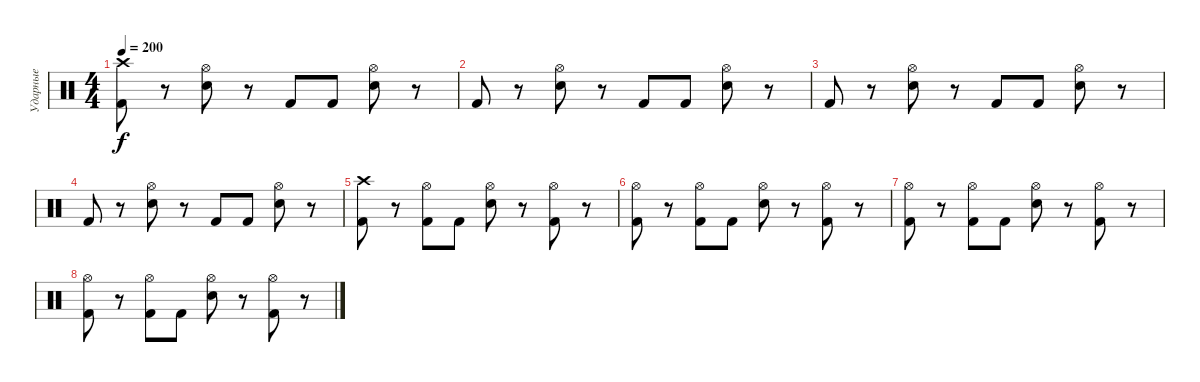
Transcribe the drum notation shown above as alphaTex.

\track ("Ударные" "Ударные") {instrument percussion}
\staff {score}
\articulation defaults
\ts (4 4)
\tempo 200
\clef neutral
\ks c
("Crash high (hit)" "Kick (hit) 2").8{dy f} r.8 ("Hi-Hat (open)" "Electric Snare (hit)").8 r.8 "Kick (hit) 2".8 "Kick (hit) 2".8 ("Hi-Hat (open)" "Electric Snare (hit)").8 r.8 |
"Kick (hit) 2".8 r.8 ("Hi-Hat (open)" "Electric Snare (hit)").8 r.8 "Kick (hit) 2".8 "Kick (hit) 2".8 ("Hi-Hat (open)" "Electric Snare (hit)").8 r.8 |
"Kick (hit) 2".8 r.8 ("Hi-Hat (open)" "Electric Snare (hit)").8 r.8 "Kick (hit) 2".8 "Kick (hit) 2".8 ("Hi-Hat (open)" "Electric Snare (hit)").8 r.8 |
"Kick (hit) 2".8 r.8 ("Hi-Hat (open)" "Electric Snare (hit)").8 r.8 "Kick (hit) 2".8 "Kick (hit) 2".8 ("Hi-Hat (open)" "Electric Snare (hit)").8 r.8 |
("Crash high (hit)" "Kick (hit) 2").8 r.8 ("Hi-Hat (open)" "Kick (hit) 2").8 "Kick (hit) 2".8 ("Hi-Hat (open)" "Electric Snare (hit)").8 r.8 ("Hi-Hat (open)" "Kick (hit) 2").8 r.8 |
("Hi-Hat (open)" "Kick (hit) 2").8 r.8 ("Hi-Hat (open)" "Kick (hit) 2").8 "Kick (hit) 2".8 ("Hi-Hat (open)" "Electric Snare (hit)").8 r.8 ("Hi-Hat (open)" "Kick (hit) 2").8 r.8 |
("Hi-Hat (open)" "Kick (hit) 2").8 r.8 ("Hi-Hat (open)" "Kick (hit) 2").8 "Kick (hit) 2".8 ("Hi-Hat (open)" "Electric Snare (hit)").8 r.8 ("Hi-Hat (open)" "Kick (hit) 2").8 r.8 |
("Hi-Hat (open)" "Kick (hit) 2").8 r.8 ("Hi-Hat (open)" "Kick (hit) 2").8 "Kick (hit) 2".8 ("Hi-Hat (open)" "Electric Snare (hit)").8 r.8 ("Hi-Hat (open)" "Kick (hit) 2").8 r.8
